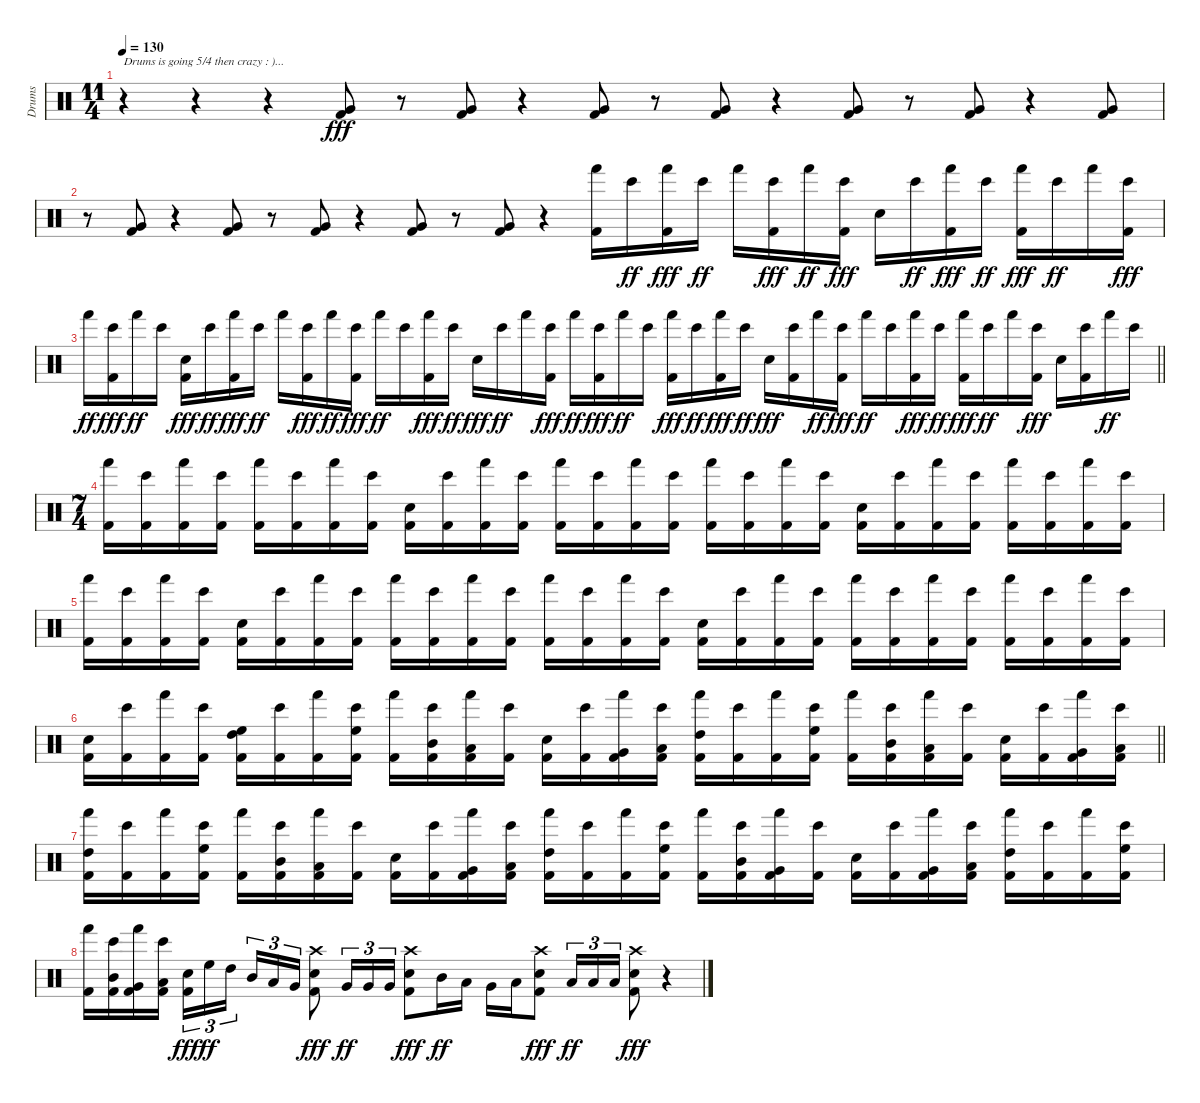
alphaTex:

\track ("Drums" "Drums") {instrument percussion}
\staff {score}
\articulation defaults
\ts (11 4)
\tempo 130
\clef neutral
\ks c
r.4{txt "Drums is going 5/4 then crazy : )..." dy ff} r.4 r.4 ("Very Low Tom (hit)" "Kick (hit) 2").8{dy fff} r.8 ("Very Low Tom (hit)" "Kick (hit) 2").8 r.4 ("Very Low Tom (hit)" "Kick (hit) 2").8 r.8 ("Very Low Tom (hit)" "Kick (hit) 2").8 r.4 ("Very Low Tom (hit)" "Kick (hit) 2").8 r.8 ("Very Low Tom (hit)" "Kick (hit) 2").8 r.4 ("Very Low Tom (hit)" "Kick (hit) 2").8 |
r.8 ("Very Low Tom (hit)" "Kick (hit) 2").8 r.4 ("Very Low Tom (hit)" "Kick (hit) 2").8 r.8 ("Very Low Tom (hit)" "Kick (hit) 2").8 r.4 ("Very Low Tom (hit)" "Kick (hit) 2").8 r.8 ("Very Low Tom (hit)" "Kick (hit) 2").8 r.4 ("Hand (hit)" "Kick (hit) 2").16 "Bongo High (hit)".16{dy ff} ("Hand (hit)" "Kick (hit) 2").16{dy fff} "Bongo High (hit)".16{dy ff} "Hand (hit)".16 ("Bongo High (hit)" "Kick (hit) 2").16{dy fff} "Hand (hit)".16{dy ff} ("Bongo High (hit)" "Kick (hit) 2").16{dy fff} "Snare (hit) 2".16 "Bongo High (hit)".16{dy ff} ("Hand (hit)" "Kick (hit) 2").16{dy fff} "Bongo High (hit)".16{dy ff} ("Hand (hit)" "Kick (hit) 2").16{dy fff} "Bongo High (hit)".16{dy ff} "Hand (hit)".16 ("Bongo High (hit)" "Kick (hit) 2").16{dy fff} |
\barLineRight lightlight "Hand (hit)".16{dy ff}
("Bongo High (hit)" "Kick (hit) 2").16{dy fff} "Hand (hit)".16{dy ff} "Bongo High (hit)".16 ("Snare (hit) 2" "Kick (hit) 2").16{dy fff} "Bongo High (hit)".16{dy ff} ("Hand (hit)" "Kick (hit) 2").16{dy fff} "Bongo High (hit)".16{dy ff} "Hand (hit)".16 ("Bongo High (hit)" "Kick (hit) 2").16{dy fff} "Hand (hit)".16{dy ff} ("Bongo High (hit)" "Kick (hit) 2").16{dy fff} "Hand (hit)".16{dy ff} "Bongo High (hit)".16 ("Hand (hit)" "Kick (hit) 2").16{dy fff} "Bongo High (hit)".16{dy ff} "Snare (hit) 2".16{dy fff} "Bongo High (hit)".16{dy ff} "Hand (hit)".16 ("Bongo High (hit)" "Kick (hit) 2").16{dy fff} "Hand (hit)".16{dy ff} ("Bongo High (hit)" "Kick (hit) 2").16{dy fff} "Hand (hit)".16{dy ff} "Bongo High (hit)".16 ("Hand (hit)" "Kick (hit) 2").16{dy fff} "Bongo High (hit)".16{dy ff} ("Hand (hit)" "Kick (hit) 2").16{dy fff} "Bongo High (hit)".16{dy ff} "Snare (hit) 2".16{dy fff} ("Bongo High (hit)" "Kick (hit) 2").16 "Hand (hit)".16{dy ff} ("Bongo High (hit)" "Kick (hit) 2").16{dy fff} "Hand (hit)".16{dy ff} "Bongo High (hit)".16 ("Hand (hit)" "Kick (hit) 2").16{dy fff} "Bongo High (hit)".16{dy ff} ("Hand (hit)" "Kick (hit) 2").16{dy fff} "Bongo High (hit)".16{dy ff} "Hand (hit)".16 ("Bongo High (hit)" "Kick (hit) 2").16{dy fff} "Snare (hit) 2".16 ("Bongo High (hit)" "Kick (hit) 2").16 "Hand (hit)".16{dy ff} "Bongo High (hit)".16 |
\ts (7 4)
\section ("" "")
("Hand (hit)" "Kick (hit) 2").16 ("Bongo High (hit)" "Kick (hit) 2").16 ("Hand (hit)" "Kick (hit) 2").16 ("Bongo High (hit)" "Kick (hit) 2").16 ("Hand (hit)" "Kick (hit) 2").16 ("Bongo High (hit)" "Kick (hit) 2").16 ("Hand (hit)" "Kick (hit) 2").16 ("Bongo High (hit)" "Kick (hit) 2").16 ("Snare (hit) 2" "Kick (hit) 2").16 ("Bongo High (hit)" "Kick (hit) 2").16 ("Hand (hit)" "Kick (hit) 2").16 ("Bongo High (hit)" "Kick (hit) 2").16 ("Hand (hit)" "Kick (hit) 2").16 ("Bongo High (hit)" "Kick (hit) 2").16 ("Hand (hit)" "Kick (hit) 2").16 ("Bongo High (hit)" "Kick (hit) 2").16 ("Hand (hit)" "Kick (hit) 2").16 ("Bongo High (hit)" "Kick (hit) 2").16 ("Hand (hit)" "Kick (hit) 2").16 ("Bongo High (hit)" "Kick (hit) 2").16 ("Snare (hit) 2" "Kick (hit) 2").16 ("Bongo High (hit)" "Kick (hit) 2").16 ("Hand (hit)" "Kick (hit) 2").16 ("Bongo High (hit)" "Kick (hit) 2").16 ("Hand (hit)" "Kick (hit) 2").16 ("Bongo High (hit)" "Kick (hit) 2").16 ("Hand (hit)" "Kick (hit) 2").16 ("Bongo High (hit)" "Kick (hit) 2").16 |
("Hand (hit)" "Kick (hit) 2").16 ("Bongo High (hit)" "Kick (hit) 2").16 ("Hand (hit)" "Kick (hit) 2").16 ("Bongo High (hit)" "Kick (hit) 2").16 ("Snare (hit) 2" "Kick (hit) 2").16 ("Bongo High (hit)" "Kick (hit) 2").16 ("Hand (hit)" "Kick (hit) 2").16 ("Bongo High (hit)" "Kick (hit) 2").16 ("Hand (hit)" "Kick (hit) 2").16 ("Bongo High (hit)" "Kick (hit) 2").16 ("Hand (hit)" "Kick (hit) 2").16 ("Bongo High (hit)" "Kick (hit) 2").16 ("Hand (hit)" "Kick (hit) 2").16 ("Bongo High (hit)" "Kick (hit) 2").16 ("Hand (hit)" "Kick (hit) 2").16 ("Bongo High (hit)" "Kick (hit) 2").16 ("Snare (hit) 2" "Kick (hit) 2").16 ("Bongo High (hit)" "Kick (hit) 2").16 ("Hand (hit)" "Kick (hit) 2").16 ("Bongo High (hit)" "Kick (hit) 2").16 ("Hand (hit)" "Kick (hit) 2").16 ("Bongo High (hit)" "Kick (hit) 2").16 ("Hand (hit)" "Kick (hit) 2").16 ("Bongo High (hit)" "Kick (hit) 2").16 ("Hand (hit)" "Kick (hit) 2").16 ("Bongo High (hit)" "Kick (hit) 2").16 ("Hand (hit)" "Kick (hit) 2").16 ("Bongo High (hit)" "Kick (hit) 2").16 |
\barLineRight lightlight
("Snare (hit) 2" "Kick (hit) 2").16 ("Bongo High (hit)" "Kick (hit) 2").16 ("Hand (hit)" "Kick (hit) 2").16 ("Bongo High (hit)" "Kick (hit) 2").16 ("High Floor Tom (hit)" "High Tom (hit)" "Kick (hit) 2").16 ("Bongo High (hit)" "Kick (hit) 2").16 ("Hand (hit)" "Kick (hit) 2").16 ("Bongo High (hit)" "High Floor Tom (hit)" "Kick (hit) 2").16 ("Hand (hit)" "Kick (hit) 2").16 ("Bongo High (hit)" "Mid Tom (hit)" "Kick (hit) 2").16 ("Hand (hit)" "Low Tom (hit)" "Kick (hit) 2").16 ("Bongo High (hit)" "Kick (hit) 2").16 ("Snare (hit) 2" "Kick (hit) 2").16 ("Bongo High (hit)" "Kick (hit) 2").16 ("Hand (hit)" "Very Low Tom (hit)" "Kick (hit) 2").16 ("Bongo High (hit)" "Low Floor Tom (hit)" "Kick (hit) 2").16 ("Hand (hit)" "High Tom (hit)" "Kick (hit) 2").16 ("Bongo High (hit)" "Kick (hit) 2").16 ("Hand (hit)" "Kick (hit) 2").16 ("Bongo High (hit)" "High Floor Tom (hit)" "Kick (hit) 2").16 ("Hand (hit)" "Kick (hit) 2").16 ("Bongo High (hit)" "Mid Tom (hit)" "Kick (hit) 2").16 ("Hand (hit)" "Low Tom (hit)" "Kick (hit) 2").16 ("Bongo High (hit)" "Kick (hit) 2").16 ("Snare (hit) 2" "Kick (hit) 2").16 ("Bongo High (hit)" "Kick (hit) 2").16 ("Hand (hit)" "Very Low Tom (hit)" "Kick (hit) 2").16 ("Bongo High (hit)" "Low Floor Tom (hit)" "Kick (hit) 2").16 |
\section ("" "")
("Hand (hit)" "High Tom (hit)" "Kick (hit) 2").16 ("Bongo High (hit)" "Kick (hit) 2").16 ("Hand (hit)" "Kick (hit) 2").16 ("Bongo High (hit)" "High Floor Tom (hit)" "Kick (hit) 2").16 ("Hand (hit)" "Kick (hit) 2").16 ("Bongo High (hit)" "Mid Tom (hit)" "Kick (hit) 2").16 ("Hand (hit)" "Low Tom (hit)" "Kick (hit) 2").16 ("Bongo High (hit)" "Kick (hit) 2").16 ("Snare (hit) 2" "Kick (hit) 2").16 ("Bongo High (hit)" "Kick (hit) 2").16 ("Hand (hit)" "Very Low Tom (hit)" "Kick (hit) 2").16 ("Bongo High (hit)" "Low Floor Tom (hit)" "Kick (hit) 2").16 ("Hand (hit)" "High Tom (hit)" "Kick (hit) 2").16 ("Bongo High (hit)" "Kick (hit) 2").16 ("Hand (hit)" "Kick (hit) 2").16 ("Bongo High (hit)" "High Floor Tom (hit)" "Kick (hit) 2").16 ("Hand (hit)" "Kick (hit) 2").16 ("Bongo High (hit)" "Mid Tom (hit)" "Kick (hit) 2").16 ("Hand (hit)" "Very Low Tom (hit)" "Kick (hit) 2").16 ("Bongo High (hit)" "Kick (hit) 2").16 ("Snare (hit) 2" "Kick (hit) 2").16 ("Bongo High (hit)" "Kick (hit) 2").16 ("Hand (hit)" "Very Low Tom (hit)" "Kick (hit) 2").16 ("Bongo High (hit)" "Low Floor Tom (hit)" "Kick (hit) 2").16 ("Hand (hit)" "High Tom (hit)" "Kick (hit) 2").16 ("Bongo High (hit)" "Kick (hit) 2").16 ("Hand (hit)" "Kick (hit) 2").16 ("Bongo High (hit)" "High Floor Tom (hit)" "Kick (hit) 2").16 |
("Hand (hit)" "Kick (hit) 2").16 ("Bongo High (hit)" "Mid Tom (hit)" "Kick (hit) 2").16 ("Hand (hit)" "Very Low Tom (hit)" "Kick (hit) 2").16 ("Bongo High (hit)" "Low Floor Tom (hit)" "Kick (hit) 2").16 ("Snare (hit) 2" "Kick (hit) 2").16{tu (3 2) dy fff} "High Floor Tom (hit)".16{tu (3 2) dy ff} "High Tom (hit)".16{tu (3 2) beam splitsecondary} "Mid Tom (hit)".16{tu (3 2)} "Low Tom (hit)".16{tu (3 2)} "Very Low Tom (hit)".16{tu (3 2)} ("Crash high (hit)" "Snare (hit) 2" "Kick (hit) 2").8{dy fff} "Very Low Tom (hit)".16{tu (3 2) dy ff} "Very Low Tom (hit)".16{tu (3 2)} "Very Low Tom (hit)".16{tu (3 2)} ("Crash high (hit)" "Snare (hit) 2" "Kick (hit) 2").8{dy fff} "Mid Tom (hit)".16{dy ff} "Low Tom (hit)".16 "Very Low Tom (hit)".16 "Low Floor Tom (hit)".16 ("Crash high (hit)" "Snare (hit) 2" "Kick (hit) 2").8{dy fff} "Low Tom (hit)".16{tu (3 2) dy ff} "Low Tom (hit)".16{tu (3 2)} "Low Tom (hit)".16{tu (3 2)} ("Crash high (hit)" "Snare (hit) 2" "Kick (hit) 2").8{dy fff} r.4
